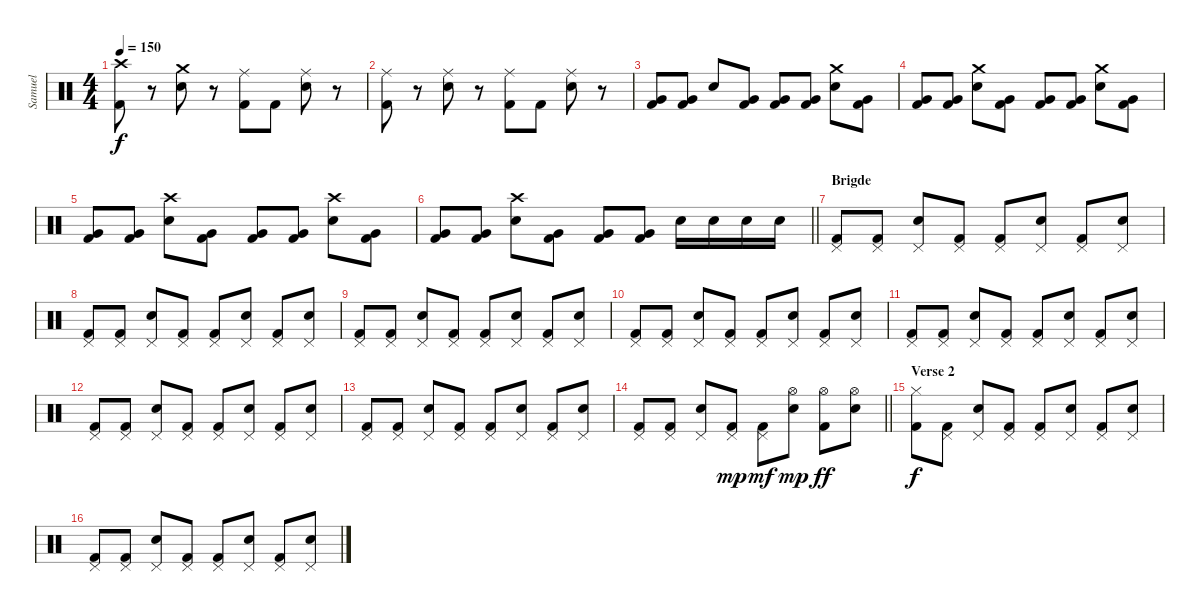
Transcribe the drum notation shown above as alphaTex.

\track ("Samuel" "Samuel") {instrument percussion}
\staff {score}
\articulation defaults
\ts (4 4)
\tempo 150
\clef neutral
\ks c
("Crash high (hit)" "Kick (hit) 2").8{dy f} r.8 ("Crash medium (hit)" "Snare (hit) 2").8 r.8 ("Ride (middle)" "Kick (hit) 2").8 "Kick (hit) 2".8 ("Ride (middle)" "Snare (hit) 2").8 r.8 |
("Ride (middle)" "Kick (hit) 2").8 r.8 ("Ride (middle)" "Snare (hit) 2").8 r.8 ("Ride (middle)" "Kick (hit) 2").8 "Kick (hit) 2".8 ("Ride (middle)" "Snare (hit) 2").8 r.8 |
("Very Low Tom (hit)" "Kick (hit) 2").8 ("Very Low Tom (hit)" "Kick (hit) 2").8 "Snare (hit) 2".8 ("Very Low Tom (hit)" "Kick (hit) 2").8 ("Very Low Tom (hit)" "Kick (hit) 2").8 ("Very Low Tom (hit)" "Kick (hit) 2").8 ("Crash medium (hit)" "Snare (hit) 2").8 ("Very Low Tom (hit)" "Kick (hit) 2").8 |
("Very Low Tom (hit)" "Kick (hit) 2").8 ("Very Low Tom (hit)" "Kick (hit) 2").8 ("Crash medium (hit)" "Snare (hit) 2").8 ("Very Low Tom (hit)" "Kick (hit) 2").8 ("Very Low Tom (hit)" "Kick (hit) 2").8 ("Very Low Tom (hit)" "Kick (hit) 2").8 ("Crash medium (hit)" "Snare (hit) 2").8 ("Very Low Tom (hit)" "Kick (hit) 2").8 |
("Very Low Tom (hit)" "Kick (hit) 2").8 ("Very Low Tom (hit)" "Kick (hit) 2").8 ("Crash high (hit)" "Snare (hit) 2").8 ("Very Low Tom (hit)" "Kick (hit) 2").8 ("Very Low Tom (hit)" "Kick (hit) 2").8 ("Very Low Tom (hit)" "Kick (hit) 2").8 ("Crash high (hit)" "Snare (hit) 2").8 ("Very Low Tom (hit)" "Kick (hit) 2").8 |
\barLineRight lightlight
("Very Low Tom (hit)" "Kick (hit) 2").8 ("Very Low Tom (hit)" "Kick (hit) 2").8 ("Crash high (hit)" "Snare (hit) 2").8 ("Very Low Tom (hit)" "Kick (hit) 2").8 ("Very Low Tom (hit)" "Kick (hit) 2").8 ("Very Low Tom (hit)" "Kick (hit) 2").8 "Snare (hit) 2".16 "Snare (hit) 2".16 "Snare (hit) 2".16 "Snare (hit) 2".16 |
\section ("" "Brigde")
("Pedal Hi-Hat (hit)" "Kick (hit) 2").8 ("Pedal Hi-Hat (hit)" "Kick (hit) 2").8 ("Pedal Hi-Hat (hit)" "Snare (hit) 2").8 ("Pedal Hi-Hat (hit)" "Kick (hit) 2").8 ("Pedal Hi-Hat (hit)" "Kick (hit) 2").8 ("Pedal Hi-Hat (hit)" "Snare (hit) 2").8 ("Pedal Hi-Hat (hit)" "Kick (hit) 2").8 ("Pedal Hi-Hat (hit)" "Snare (hit) 2").8 |
("Pedal Hi-Hat (hit)" "Kick (hit) 2").8 ("Pedal Hi-Hat (hit)" "Kick (hit) 2").8 ("Pedal Hi-Hat (hit)" "Snare (hit) 2").8 ("Pedal Hi-Hat (hit)" "Kick (hit) 2").8 ("Pedal Hi-Hat (hit)" "Kick (hit) 2").8 ("Pedal Hi-Hat (hit)" "Snare (hit) 2").8 ("Pedal Hi-Hat (hit)" "Kick (hit) 2").8 ("Pedal Hi-Hat (hit)" "Snare (hit) 2").8 |
("Pedal Hi-Hat (hit)" "Kick (hit) 2").8 ("Pedal Hi-Hat (hit)" "Kick (hit) 2").8 ("Pedal Hi-Hat (hit)" "Snare (hit) 2").8 ("Pedal Hi-Hat (hit)" "Kick (hit) 2").8 ("Pedal Hi-Hat (hit)" "Kick (hit) 2").8 ("Pedal Hi-Hat (hit)" "Snare (hit) 2").8 ("Pedal Hi-Hat (hit)" "Kick (hit) 2").8 ("Pedal Hi-Hat (hit)" "Snare (hit) 2").8 |
("Pedal Hi-Hat (hit)" "Kick (hit) 2").8 ("Pedal Hi-Hat (hit)" "Kick (hit) 2").8 ("Pedal Hi-Hat (hit)" "Snare (hit) 2").8 ("Pedal Hi-Hat (hit)" "Kick (hit) 2").8 ("Pedal Hi-Hat (hit)" "Kick (hit) 2").8 ("Pedal Hi-Hat (hit)" "Snare (hit) 2").8 ("Pedal Hi-Hat (hit)" "Kick (hit) 2").8 ("Pedal Hi-Hat (hit)" "Snare (hit) 2").8 |
("Pedal Hi-Hat (hit)" "Kick (hit) 2").8 ("Pedal Hi-Hat (hit)" "Kick (hit) 2").8 ("Pedal Hi-Hat (hit)" "Snare (hit) 2").8 ("Pedal Hi-Hat (hit)" "Kick (hit) 2").8 ("Pedal Hi-Hat (hit)" "Kick (hit) 2").8 ("Pedal Hi-Hat (hit)" "Snare (hit) 2").8 ("Pedal Hi-Hat (hit)" "Kick (hit) 2").8 ("Pedal Hi-Hat (hit)" "Snare (hit) 2").8 |
("Pedal Hi-Hat (hit)" "Kick (hit) 2").8 ("Pedal Hi-Hat (hit)" "Kick (hit) 2").8 ("Pedal Hi-Hat (hit)" "Snare (hit) 2").8 ("Pedal Hi-Hat (hit)" "Kick (hit) 2").8 ("Pedal Hi-Hat (hit)" "Kick (hit) 2").8 ("Pedal Hi-Hat (hit)" "Snare (hit) 2").8 ("Pedal Hi-Hat (hit)" "Kick (hit) 2").8 ("Pedal Hi-Hat (hit)" "Snare (hit) 2").8 |
("Pedal Hi-Hat (hit)" "Kick (hit) 2").8 ("Pedal Hi-Hat (hit)" "Kick (hit) 2").8 ("Pedal Hi-Hat (hit)" "Snare (hit) 2").8 ("Pedal Hi-Hat (hit)" "Kick (hit) 2").8 ("Pedal Hi-Hat (hit)" "Kick (hit) 2").8 ("Pedal Hi-Hat (hit)" "Snare (hit) 2").8 ("Pedal Hi-Hat (hit)" "Kick (hit) 2").8 ("Pedal Hi-Hat (hit)" "Snare (hit) 2").8 |
\barLineRight lightlight
("Pedal Hi-Hat (hit)" "Kick (hit) 2").8 ("Pedal Hi-Hat (hit)" "Kick (hit) 2").8 ("Pedal Hi-Hat (hit)" "Snare (hit) 2").8 ("Pedal Hi-Hat (hit)" "Kick (hit) 2").8{dy mp} ("Pedal Hi-Hat (hit)" "Kick (hit) 2").8{dy mf} ("Hi-Hat (open)" "Snare (hit) 2").8{dy mp} ("Hi-Hat (open)" "Kick (hit) 2").8{dy ff} ("Hi-Hat (open)" "Snare (hit) 2").8 |
\section ("" "Verse 2")
("Hi-Hat (closed)" "Kick (hit) 2").8{dy f} ("Pedal Hi-Hat (hit)" "Kick (hit) 2").8 ("Pedal Hi-Hat (hit)" "Snare (hit) 2").8 ("Pedal Hi-Hat (hit)" "Kick (hit) 2").8 ("Pedal Hi-Hat (hit)" "Kick (hit) 2").8 ("Pedal Hi-Hat (hit)" "Snare (hit) 2").8 ("Pedal Hi-Hat (hit)" "Kick (hit) 2").8 ("Pedal Hi-Hat (hit)" "Snare (hit) 2").8 |
("Pedal Hi-Hat (hit)" "Kick (hit) 2").8 ("Pedal Hi-Hat (hit)" "Kick (hit) 2").8 ("Pedal Hi-Hat (hit)" "Snare (hit) 2").8 ("Pedal Hi-Hat (hit)" "Kick (hit) 2").8 ("Pedal Hi-Hat (hit)" "Kick (hit) 2").8 ("Pedal Hi-Hat (hit)" "Snare (hit) 2").8 ("Pedal Hi-Hat (hit)" "Kick (hit) 2").8 ("Pedal Hi-Hat (hit)" "Snare (hit) 2").8
